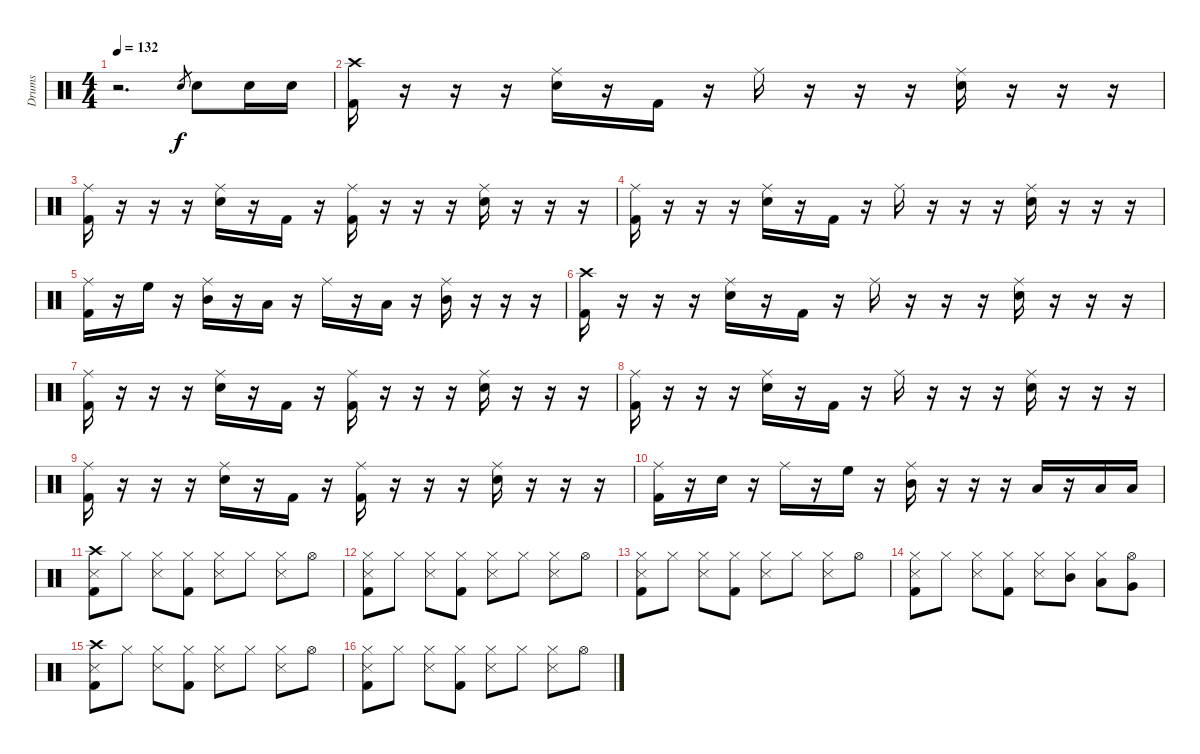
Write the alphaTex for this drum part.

\track ("Drums" "Drums") {instrument percussion}
\staff {score}
\articulation defaults
\ts (4 4)
\tempo 132
\clef neutral
\ks c
r.2{d dy f} "Snare (hit) 2".8{gr} "Snare (hit) 2".8 "Snare (hit) 2".16 "Snare (hit) 2".16 |
("Crash high (hit)" "Kick (hit) 2").16 r.16 r.16 r.16 ("Ride (middle)" "Snare (hit) 2").16 r.16 "Kick (hit) 2".16 r.16 "Ride (middle)".16 r.16 r.16 r.16 ("Ride (middle)" "Snare (hit) 2").16 r.16 r.16 r.16 |
("Ride (middle)" "Kick (hit) 2").16 r.16 r.16 r.16 ("Ride (middle)" "Snare (hit) 2").16 r.16 "Kick (hit) 2".16 r.16 ("Ride (middle)" "Kick (hit) 2").16 r.16 r.16 r.16 ("Ride (middle)" "Snare (hit) 2").16 r.16 r.16 r.16 |
("Ride (middle)" "Kick (hit) 2").16 r.16 r.16 r.16 ("Ride (middle)" "Snare (hit) 2").16 r.16 "Kick (hit) 2".16 r.16 "Ride (middle)".16 r.16 r.16 r.16 ("Ride (middle)" "Snare (hit) 2").16 r.16 r.16 r.16 |
("Ride (middle)" "Kick (hit) 2").16 r.16 "High Floor Tom (hit)".16 r.16 ("Ride (middle)" "Mid Tom (hit)").16 r.16 "Low Tom (hit)".16 r.16 "Ride (middle)".16 r.16 "Low Tom (hit)".16 r.16 ("Ride (middle)" "Mid Tom (hit)").16 r.16 r.16 r.16 |
("Crash high (hit)" "Kick (hit) 2").16 r.16 r.16 r.16 ("Ride (middle)" "Snare (hit) 2").16 r.16 "Kick (hit) 2".16 r.16 "Ride (middle)".16 r.16 r.16 r.16 ("Ride (middle)" "Snare (hit) 2").16 r.16 r.16 r.16 |
("Ride (middle)" "Kick (hit) 2").16 r.16 r.16 r.16 ("Ride (middle)" "Snare (hit) 2").16 r.16 "Kick (hit) 2".16 r.16 ("Ride (middle)" "Kick (hit) 2").16 r.16 r.16 r.16 ("Ride (middle)" "Snare (hit) 2").16 r.16 r.16 r.16 |
("Ride (middle)" "Kick (hit) 2").16 r.16 r.16 r.16 ("Ride (middle)" "Snare (hit) 2").16 r.16 "Kick (hit) 2".16 r.16 "Ride (middle)".16 r.16 r.16 r.16 ("Ride (middle)" "Snare (hit) 2").16 r.16 r.16 r.16 |
("Ride (middle)" "Kick (hit) 2").16 r.16 r.16 r.16 ("Ride (middle)" "Snare (hit) 2").16 r.16 "Kick (hit) 2".16 r.16 ("Ride (middle)" "Kick (hit) 2").16 r.16 r.16 r.16 ("Ride (middle)" "Snare (hit) 2").16 r.16 r.16 r.16 |
("Ride (middle)" "Kick (hit) 2").16 r.16 "Snare (hit) 2".16 r.16 "Ride (middle)".16 r.16 "High Floor Tom (hit)".16 r.16 ("Ride (middle)" "Mid Tom (hit)").16 r.16 r.16 r.16 "Low Tom (hit)".16 r.16 "Low Floor Tom (hit)".16 "Low Floor Tom (hit)".16 |
("Crash high (hit)" "Snare (side stick) 3" "Kick (hit) 2").8 "Hi-Hat (closed)".8 ("Hi-Hat (closed)" "Snare (side stick) 3").8 ("Hi-Hat (closed)" "Kick (hit) 2").8 ("Hi-Hat (closed)" "Snare (side stick) 3").8 "Hi-Hat (closed)".8 ("Hi-Hat (closed)" "Snare (side stick) 3").8 "Hi-Hat (open)".8 |
("Hi-Hat (closed)" "Snare (side stick) 3" "Kick (hit) 2").8 "Hi-Hat (closed)".8 ("Hi-Hat (closed)" "Snare (side stick) 3").8 ("Hi-Hat (closed)" "Kick (hit) 2").8 ("Hi-Hat (closed)" "Snare (side stick) 3").8 "Hi-Hat (closed)".8 ("Hi-Hat (closed)" "Snare (side stick) 3").8 "Hi-Hat (open)".8 |
("Hi-Hat (closed)" "Snare (side stick) 3" "Kick (hit) 2").8 "Hi-Hat (closed)".8 ("Hi-Hat (closed)" "Snare (side stick) 3").8 ("Hi-Hat (closed)" "Kick (hit) 2").8 ("Hi-Hat (closed)" "Snare (side stick) 3").8 "Hi-Hat (closed)".8 ("Hi-Hat (closed)" "Snare (side stick) 3").8 "Hi-Hat (open)".8 |
("Hi-Hat (closed)" "Snare (side stick) 3" "Kick (hit) 2").8 "Hi-Hat (closed)".8 ("Hi-Hat (closed)" "Snare (side stick) 3").8 ("Hi-Hat (closed)" "Kick (hit) 2").8 ("Hi-Hat (closed)" "Snare (side stick) 3").8 ("Hi-Hat (closed)" "Mid Tom (hit)").8 ("Hi-Hat (closed)" "Low Tom (hit)").8 ("Hi-Hat (open)" "Very Low Tom (hit)").8 |
("Crash high (hit)" "Snare (side stick) 3" "Kick (hit) 2").8 "Hi-Hat (closed)".8 ("Hi-Hat (closed)" "Snare (side stick) 3").8 ("Hi-Hat (closed)" "Kick (hit) 2").8 ("Hi-Hat (closed)" "Snare (side stick) 3").8 "Hi-Hat (closed)".8 ("Hi-Hat (closed)" "Snare (side stick) 3").8 "Hi-Hat (open)".8 |
("Hi-Hat (closed)" "Snare (side stick) 3" "Kick (hit) 2").8 "Hi-Hat (closed)".8 ("Hi-Hat (closed)" "Snare (side stick) 3").8 ("Hi-Hat (closed)" "Kick (hit) 2").8 ("Hi-Hat (closed)" "Snare (side stick) 3").8 "Hi-Hat (closed)".8 ("Hi-Hat (closed)" "Snare (side stick) 3").8 "Hi-Hat (open)".8
